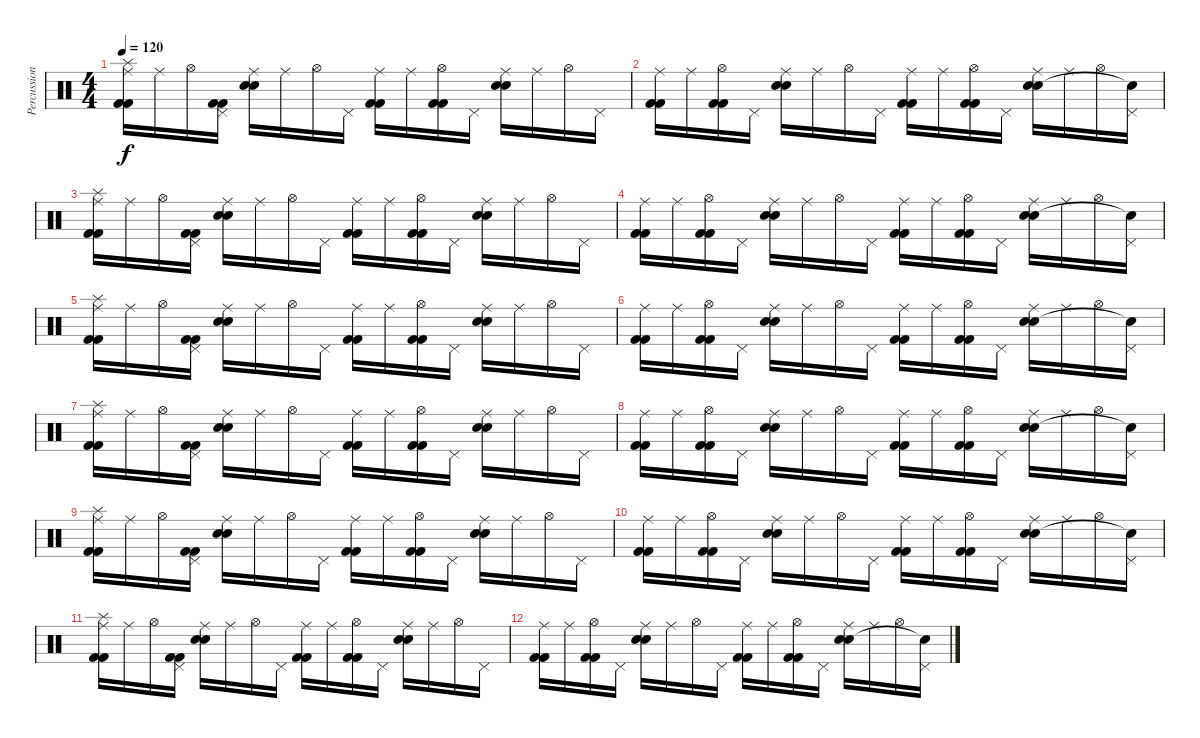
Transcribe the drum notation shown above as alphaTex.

\track ("Percussion" "Percussion") {instrument percussion}
\staff {score}
\articulation defaults
\ts (4 4)
\tempo 120
\clef neutral
\ks c
("Ride (middle)" "Splash (hit)" "Kick (hit) 2" "Kick (hit) 2").16{dy f} "Ride (middle)".16 "Hi-Hat (open)".16 ("Pedal Hi-Hat (hit)" "Kick (hit) 2" "Kick (hit) 2").16 ("Ride (middle)" "Electric Snare (hit)" "Electric Snare (hit)").16 "Ride (middle)".16 "Hi-Hat (open)".16 "Pedal Hi-Hat (hit)".16 ("Ride (middle)" "Kick (hit) 2" "Kick (hit) 2").16 "Ride (middle)".16 ("Hi-Hat (open)" "Kick (hit) 2" "Kick (hit) 2").16 "Pedal Hi-Hat (hit)".16 ("Ride (middle)" "Electric Snare (hit)" "Electric Snare (hit)").16 "Ride (middle)".16 "Hi-Hat (open)".16 "Pedal Hi-Hat (hit)".16 |
("Ride (middle)" "Kick (hit) 2" "Kick (hit) 2").16 "Ride (middle)".16 ("Hi-Hat (open)" "Kick (hit) 2" "Kick (hit) 2").16 "Pedal Hi-Hat (hit)".16 ("Ride (middle)" "Electric Snare (hit)" "Electric Snare (hit)").16 "Ride (middle)".16 "Hi-Hat (open)".16 "Pedal Hi-Hat (hit)".16 ("Ride (middle)" "Kick (hit) 2" "Kick (hit) 2").16 "Ride (middle)".16 ("Hi-Hat (open)" "Kick (hit) 2" "Kick (hit) 2").16 "Pedal Hi-Hat (hit)".16 ("Ride (middle)" "Electric Snare (hit)" "Electric Snare (hit)").16 "Ride (middle)".16 "Hi-Hat (open)".16 ("Pedal Hi-Hat (hit)" "Snare (hit)"{t}).16 |
("Ride (middle)" "Splash (hit)" "Kick (hit) 2" "Kick (hit) 2").16 "Ride (middle)".16 "Hi-Hat (open)".16 ("Pedal Hi-Hat (hit)" "Kick (hit) 2" "Kick (hit) 2").16 ("Ride (middle)" "Electric Snare (hit)" "Electric Snare (hit)").16 "Ride (middle)".16 "Hi-Hat (open)".16 "Pedal Hi-Hat (hit)".16 ("Ride (middle)" "Kick (hit) 2" "Kick (hit) 2").16 "Ride (middle)".16 ("Hi-Hat (open)" "Kick (hit) 2" "Kick (hit) 2").16 "Pedal Hi-Hat (hit)".16 ("Ride (middle)" "Electric Snare (hit)" "Electric Snare (hit)").16 "Ride (middle)".16 "Hi-Hat (open)".16 "Pedal Hi-Hat (hit)".16 |
("Ride (middle)" "Kick (hit) 2" "Kick (hit) 2").16 "Ride (middle)".16 ("Hi-Hat (open)" "Kick (hit) 2" "Kick (hit) 2").16 "Pedal Hi-Hat (hit)".16 ("Ride (middle)" "Electric Snare (hit)" "Electric Snare (hit)").16 "Ride (middle)".16 "Hi-Hat (open)".16 "Pedal Hi-Hat (hit)".16 ("Ride (middle)" "Kick (hit) 2" "Kick (hit) 2").16 "Ride (middle)".16 ("Hi-Hat (open)" "Kick (hit) 2" "Kick (hit) 2").16 "Pedal Hi-Hat (hit)".16 ("Ride (middle)" "Electric Snare (hit)" "Electric Snare (hit)").16 "Ride (middle)".16 "Hi-Hat (open)".16 ("Pedal Hi-Hat (hit)" "Snare (hit)"{t}).16 |
("Ride (middle)" "Splash (hit)" "Kick (hit) 2" "Kick (hit) 2").16 "Ride (middle)".16 "Hi-Hat (open)".16 ("Pedal Hi-Hat (hit)" "Kick (hit) 2" "Kick (hit) 2").16 ("Ride (middle)" "Electric Snare (hit)" "Electric Snare (hit)").16 "Ride (middle)".16 "Hi-Hat (open)".16 "Pedal Hi-Hat (hit)".16 ("Ride (middle)" "Kick (hit) 2" "Kick (hit) 2").16 "Ride (middle)".16 ("Hi-Hat (open)" "Kick (hit) 2" "Kick (hit) 2").16 "Pedal Hi-Hat (hit)".16 ("Ride (middle)" "Electric Snare (hit)" "Electric Snare (hit)").16 "Ride (middle)".16 "Hi-Hat (open)".16 "Pedal Hi-Hat (hit)".16 |
("Ride (middle)" "Kick (hit) 2" "Kick (hit) 2").16 "Ride (middle)".16 ("Hi-Hat (open)" "Kick (hit) 2" "Kick (hit) 2").16 "Pedal Hi-Hat (hit)".16 ("Ride (middle)" "Electric Snare (hit)" "Electric Snare (hit)").16 "Ride (middle)".16 "Hi-Hat (open)".16 "Pedal Hi-Hat (hit)".16 ("Ride (middle)" "Kick (hit) 2" "Kick (hit) 2").16 "Ride (middle)".16 ("Hi-Hat (open)" "Kick (hit) 2" "Kick (hit) 2").16 "Pedal Hi-Hat (hit)".16 ("Ride (middle)" "Electric Snare (hit)" "Electric Snare (hit)").16 "Ride (middle)".16 "Hi-Hat (open)".16 ("Pedal Hi-Hat (hit)" "Snare (hit)"{t}).16 |
("Ride (middle)" "Splash (hit)" "Kick (hit) 2" "Kick (hit) 2").16 "Ride (middle)".16 "Hi-Hat (open)".16 ("Pedal Hi-Hat (hit)" "Kick (hit) 2" "Kick (hit) 2").16 ("Ride (middle)" "Electric Snare (hit)" "Electric Snare (hit)").16 "Ride (middle)".16 "Hi-Hat (open)".16 "Pedal Hi-Hat (hit)".16 ("Ride (middle)" "Kick (hit) 2" "Kick (hit) 2").16 "Ride (middle)".16 ("Hi-Hat (open)" "Kick (hit) 2" "Kick (hit) 2").16 "Pedal Hi-Hat (hit)".16 ("Ride (middle)" "Electric Snare (hit)" "Electric Snare (hit)").16 "Ride (middle)".16 "Hi-Hat (open)".16 "Pedal Hi-Hat (hit)".16 |
("Ride (middle)" "Kick (hit) 2" "Kick (hit) 2").16 "Ride (middle)".16 ("Hi-Hat (open)" "Kick (hit) 2" "Kick (hit) 2").16 "Pedal Hi-Hat (hit)".16 ("Ride (middle)" "Electric Snare (hit)" "Electric Snare (hit)").16 "Ride (middle)".16 "Hi-Hat (open)".16 "Pedal Hi-Hat (hit)".16 ("Ride (middle)" "Kick (hit) 2" "Kick (hit) 2").16 "Ride (middle)".16 ("Hi-Hat (open)" "Kick (hit) 2" "Kick (hit) 2").16 "Pedal Hi-Hat (hit)".16 ("Ride (middle)" "Electric Snare (hit)" "Electric Snare (hit)").16 "Ride (middle)".16 "Hi-Hat (open)".16 ("Pedal Hi-Hat (hit)" "Snare (hit)"{t}).16 |
("Ride (middle)" "Splash (hit)" "Kick (hit) 2" "Kick (hit) 2").16 "Ride (middle)".16 "Hi-Hat (open)".16 ("Pedal Hi-Hat (hit)" "Kick (hit) 2" "Kick (hit) 2").16 ("Ride (middle)" "Electric Snare (hit)" "Electric Snare (hit)").16 "Ride (middle)".16 "Hi-Hat (open)".16 "Pedal Hi-Hat (hit)".16 ("Ride (middle)" "Kick (hit) 2" "Kick (hit) 2").16 "Ride (middle)".16 ("Hi-Hat (open)" "Kick (hit) 2" "Kick (hit) 2").16 "Pedal Hi-Hat (hit)".16 ("Ride (middle)" "Electric Snare (hit)" "Electric Snare (hit)").16 "Ride (middle)".16 "Hi-Hat (open)".16 "Pedal Hi-Hat (hit)".16 |
("Ride (middle)" "Kick (hit) 2" "Kick (hit) 2").16 "Ride (middle)".16 ("Hi-Hat (open)" "Kick (hit) 2" "Kick (hit) 2").16 "Pedal Hi-Hat (hit)".16 ("Ride (middle)" "Electric Snare (hit)" "Electric Snare (hit)").16 "Ride (middle)".16 "Hi-Hat (open)".16 "Pedal Hi-Hat (hit)".16 ("Ride (middle)" "Kick (hit) 2" "Kick (hit) 2").16 "Ride (middle)".16 ("Hi-Hat (open)" "Kick (hit) 2" "Kick (hit) 2").16 "Pedal Hi-Hat (hit)".16 ("Ride (middle)" "Electric Snare (hit)" "Electric Snare (hit)").16 "Ride (middle)".16 "Hi-Hat (open)".16 ("Pedal Hi-Hat (hit)" "Snare (hit)"{t}).16 |
("Ride (middle)" "Splash (hit)" "Kick (hit) 2" "Kick (hit) 2").16 "Ride (middle)".16 "Hi-Hat (open)".16 ("Pedal Hi-Hat (hit)" "Kick (hit) 2" "Kick (hit) 2").16 ("Ride (middle)" "Electric Snare (hit)" "Electric Snare (hit)").16 "Ride (middle)".16 "Hi-Hat (open)".16 "Pedal Hi-Hat (hit)".16 ("Ride (middle)" "Kick (hit) 2" "Kick (hit) 2").16 "Ride (middle)".16 ("Hi-Hat (open)" "Kick (hit) 2" "Kick (hit) 2").16 "Pedal Hi-Hat (hit)".16 ("Ride (middle)" "Electric Snare (hit)" "Electric Snare (hit)").16 "Ride (middle)".16 "Hi-Hat (open)".16 "Pedal Hi-Hat (hit)".16 |
("Ride (middle)" "Kick (hit) 2" "Kick (hit) 2").16 "Ride (middle)".16 ("Hi-Hat (open)" "Kick (hit) 2" "Kick (hit) 2").16 "Pedal Hi-Hat (hit)".16 ("Ride (middle)" "Electric Snare (hit)" "Electric Snare (hit)").16 "Ride (middle)".16 "Hi-Hat (open)".16 "Pedal Hi-Hat (hit)".16 ("Ride (middle)" "Kick (hit) 2" "Kick (hit) 2").16 "Ride (middle)".16 ("Hi-Hat (open)" "Kick (hit) 2" "Kick (hit) 2").16 "Pedal Hi-Hat (hit)".16 ("Ride (middle)" "Electric Snare (hit)" "Electric Snare (hit)").16 "Ride (middle)".16 "Hi-Hat (open)".16 ("Pedal Hi-Hat (hit)" "Snare (hit)"{t}).16
